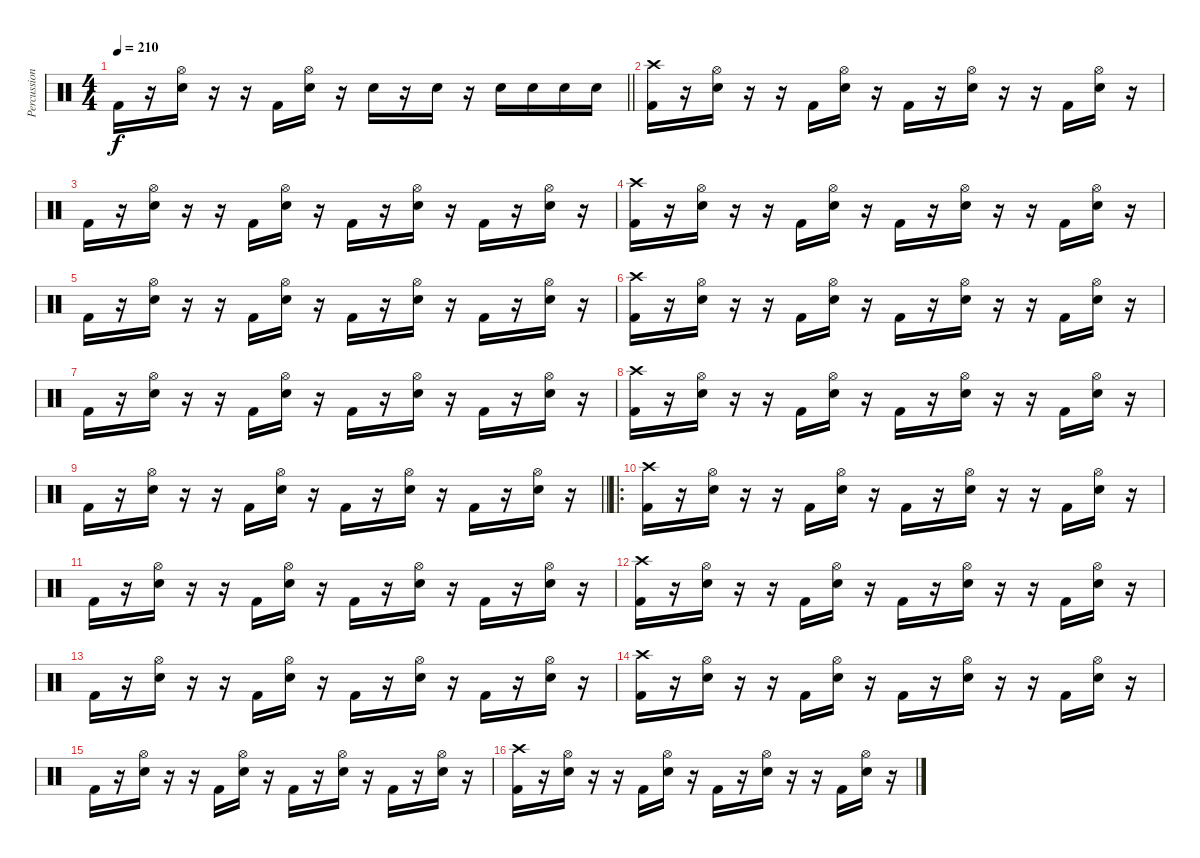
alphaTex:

\track ("Percussions" "Percussion") {instrument percussion}
\staff {score}
\articulation defaults
\ts (4 4)
\tempo 210
\clef neutral
\barLineRight lightlight
\ks c "Kick (hit) 2".16{dy f}
r.16 ("Hi-Hat (open)" "Snare (hit) 2").16 r.16 r.16 "Kick (hit) 2".16 ("Hi-Hat (open)" "Snare (hit) 2").16 r.16 "Snare (hit) 2".16 r.16 "Snare (hit) 2".16 r.16 "Snare (hit) 2".16 "Snare (hit) 2".16 "Snare (hit) 2".16 "Snare (hit) 2".16 |
\section ("" "")
("Crash high (hit)" "Kick (hit) 2").16 r.16 ("Hi-Hat (open)" "Snare (hit) 2").16 r.16 r.16 "Kick (hit) 2".16 ("Hi-Hat (open)" "Snare (hit) 2").16 r.16 "Kick (hit) 2".16 r.16 ("Hi-Hat (open)" "Snare (hit) 2").16 r.16 r.16 "Kick (hit) 2".16 ("Hi-Hat (open)" "Snare (hit) 2").16 r.16 |
"Kick (hit) 2".16 r.16 ("Hi-Hat (open)" "Snare (hit) 2").16 r.16 r.16 "Kick (hit) 2".16 ("Hi-Hat (open)" "Snare (hit) 2").16 r.16 "Kick (hit) 2".16 r.16 ("Hi-Hat (open)" "Snare (hit) 2").16 r.16 "Kick (hit) 2".16 r.16 ("Hi-Hat (open)" "Snare (hit) 2").16 r.16 |
("Crash high (hit)" "Kick (hit) 2").16 r.16 ("Hi-Hat (open)" "Snare (hit) 2").16 r.16 r.16 "Kick (hit) 2".16 ("Hi-Hat (open)" "Snare (hit) 2").16 r.16 "Kick (hit) 2".16 r.16 ("Hi-Hat (open)" "Snare (hit) 2").16 r.16 r.16 "Kick (hit) 2".16 ("Hi-Hat (open)" "Snare (hit) 2").16 r.16 |
"Kick (hit) 2".16 r.16 ("Hi-Hat (open)" "Snare (hit) 2").16 r.16 r.16 "Kick (hit) 2".16 ("Hi-Hat (open)" "Snare (hit) 2").16 r.16 "Kick (hit) 2".16 r.16 ("Hi-Hat (open)" "Snare (hit) 2").16 r.16 "Kick (hit) 2".16 r.16 ("Hi-Hat (open)" "Snare (hit) 2").16 r.16 |
("Crash high (hit)" "Kick (hit) 2").16 r.16 ("Hi-Hat (open)" "Snare (hit) 2").16 r.16 r.16 "Kick (hit) 2".16 ("Hi-Hat (open)" "Snare (hit) 2").16 r.16 "Kick (hit) 2".16 r.16 ("Hi-Hat (open)" "Snare (hit) 2").16 r.16 r.16 "Kick (hit) 2".16 ("Hi-Hat (open)" "Snare (hit) 2").16 r.16 |
"Kick (hit) 2".16 r.16 ("Hi-Hat (open)" "Snare (hit) 2").16 r.16 r.16 "Kick (hit) 2".16 ("Hi-Hat (open)" "Snare (hit) 2").16 r.16 "Kick (hit) 2".16 r.16 ("Hi-Hat (open)" "Snare (hit) 2").16 r.16 "Kick (hit) 2".16 r.16 ("Hi-Hat (open)" "Snare (hit) 2").16 r.16 |
("Crash high (hit)" "Kick (hit) 2").16 r.16 ("Hi-Hat (open)" "Snare (hit) 2").16 r.16 r.16 "Kick (hit) 2".16 ("Hi-Hat (open)" "Snare (hit) 2").16 r.16 "Kick (hit) 2".16 r.16 ("Hi-Hat (open)" "Snare (hit) 2").16 r.16 r.16 "Kick (hit) 2".16 ("Hi-Hat (open)" "Snare (hit) 2").16 r.16 |
\barLineRight lightlight "Kick (hit) 2".16
r.16 ("Hi-Hat (open)" "Snare (hit) 2").16 r.16 r.16 "Kick (hit) 2".16 ("Hi-Hat (open)" "Snare (hit) 2").16 r.16 "Kick (hit) 2".16 r.16 ("Hi-Hat (open)" "Snare (hit) 2").16 r.16 "Kick (hit) 2".16 r.16 ("Hi-Hat (open)" "Snare (hit) 2").16 r.16 |
\ro
\section ("" "")
("Crash high (hit)" "Kick (hit) 2").16 r.16 ("Hi-Hat (open)" "Snare (hit) 2").16 r.16 r.16 "Kick (hit) 2".16 ("Hi-Hat (open)" "Snare (hit) 2").16 r.16 "Kick (hit) 2".16 r.16 ("Hi-Hat (open)" "Snare (hit) 2").16 r.16 r.16 "Kick (hit) 2".16 ("Hi-Hat (open)" "Snare (hit) 2").16 r.16 |
"Kick (hit) 2".16 r.16 ("Hi-Hat (open)" "Snare (hit) 2").16 r.16 r.16 "Kick (hit) 2".16 ("Hi-Hat (open)" "Snare (hit) 2").16 r.16 "Kick (hit) 2".16 r.16 ("Hi-Hat (open)" "Snare (hit) 2").16 r.16 "Kick (hit) 2".16 r.16 ("Hi-Hat (open)" "Snare (hit) 2").16 r.16 |
("Crash high (hit)" "Kick (hit) 2").16 r.16 ("Hi-Hat (open)" "Snare (hit) 2").16 r.16 r.16 "Kick (hit) 2".16 ("Hi-Hat (open)" "Snare (hit) 2").16 r.16 "Kick (hit) 2".16 r.16 ("Hi-Hat (open)" "Snare (hit) 2").16 r.16 r.16 "Kick (hit) 2".16 ("Hi-Hat (open)" "Snare (hit) 2").16 r.16 |
"Kick (hit) 2".16 r.16 ("Hi-Hat (open)" "Snare (hit) 2").16 r.16 r.16 "Kick (hit) 2".16 ("Hi-Hat (open)" "Snare (hit) 2").16 r.16 "Kick (hit) 2".16 r.16 ("Hi-Hat (open)" "Snare (hit) 2").16 r.16 "Kick (hit) 2".16 r.16 ("Hi-Hat (open)" "Snare (hit) 2").16 r.16 |
("Crash high (hit)" "Kick (hit) 2").16 r.16 ("Hi-Hat (open)" "Snare (hit) 2").16 r.16 r.16 "Kick (hit) 2".16 ("Hi-Hat (open)" "Snare (hit) 2").16 r.16 "Kick (hit) 2".16 r.16 ("Hi-Hat (open)" "Snare (hit) 2").16 r.16 r.16 "Kick (hit) 2".16 ("Hi-Hat (open)" "Snare (hit) 2").16 r.16 |
"Kick (hit) 2".16 r.16 ("Hi-Hat (open)" "Snare (hit) 2").16 r.16 r.16 "Kick (hit) 2".16 ("Hi-Hat (open)" "Snare (hit) 2").16 r.16 "Kick (hit) 2".16 r.16 ("Hi-Hat (open)" "Snare (hit) 2").16 r.16 "Kick (hit) 2".16 r.16 ("Hi-Hat (open)" "Snare (hit) 2").16 r.16 |
("Crash high (hit)" "Kick (hit) 2").16 r.16 ("Hi-Hat (open)" "Snare (hit) 2").16 r.16 r.16 "Kick (hit) 2".16 ("Hi-Hat (open)" "Snare (hit) 2").16 r.16 "Kick (hit) 2".16 r.16 ("Hi-Hat (open)" "Snare (hit) 2").16 r.16 r.16 "Kick (hit) 2".16 ("Hi-Hat (open)" "Snare (hit) 2").16 r.16
